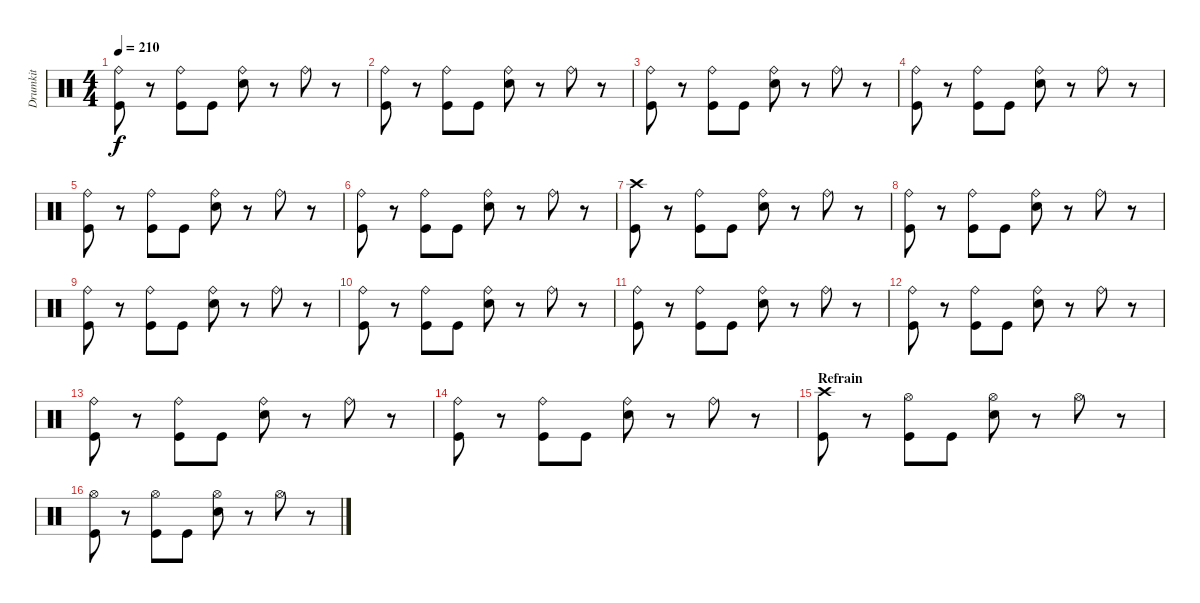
\track ("Drumkit" "Drumkit") {instrument percussion}
\staff {score}
\articulation defaults
\ts (4 4)
\tempo 210
\clef neutral
\ks c
("Ride (bell)" "Kick (hit)").8{dy f} r.8 ("Ride (bell)" "Kick (hit)").8 "Kick (hit)".8 ("Ride (bell)" "Snare (hit) 2").8 r.8 "Ride (bell)".8 r.8 |
("Ride (bell)" "Kick (hit)").8 r.8 ("Ride (bell)" "Kick (hit)").8 "Kick (hit)".8 ("Ride (bell)" "Snare (hit) 2").8 r.8 "Ride (bell)".8 r.8 |
("Ride (bell)" "Kick (hit)").8 r.8 ("Ride (bell)" "Kick (hit)").8 "Kick (hit)".8 ("Ride (bell)" "Snare (hit) 2").8 r.8 "Ride (bell)".8 r.8 |
("Ride (bell)" "Kick (hit)").8 r.8 ("Ride (bell)" "Kick (hit)").8 "Kick (hit)".8 ("Ride (bell)" "Snare (hit) 2").8 r.8 "Ride (bell)".8 r.8 |
("Ride (bell)" "Kick (hit)").8 r.8 ("Ride (bell)" "Kick (hit)").8 "Kick (hit)".8 ("Ride (bell)" "Snare (hit) 2").8 r.8 "Ride (bell)".8 r.8 |
("Ride (bell)" "Kick (hit)").8 r.8 ("Ride (bell)" "Kick (hit)").8 "Kick (hit)".8 ("Ride (bell)" "Snare (hit) 2").8 r.8 "Ride (bell)".8 r.8 |
("Crash high (hit)" "Kick (hit)").8 r.8 ("Ride (bell)" "Kick (hit)").8 "Kick (hit)".8 ("Ride (bell)" "Snare (hit) 2").8 r.8 "Ride (bell)".8 r.8 |
("Ride (bell)" "Kick (hit)").8 r.8 ("Ride (bell)" "Kick (hit)").8 "Kick (hit)".8 ("Ride (bell)" "Snare (hit) 2").8 r.8 "Ride (bell)".8 r.8 |
("Ride (bell)" "Kick (hit)").8 r.8 ("Ride (bell)" "Kick (hit)").8 "Kick (hit)".8 ("Ride (bell)" "Snare (hit) 2").8 r.8 "Ride (bell)".8 r.8 |
("Ride (bell)" "Kick (hit)").8 r.8 ("Ride (bell)" "Kick (hit)").8 "Kick (hit)".8 ("Ride (bell)" "Snare (hit) 2").8 r.8 "Ride (bell)".8 r.8 |
("Ride (bell)" "Kick (hit)").8 r.8 ("Ride (bell)" "Kick (hit)").8 "Kick (hit)".8 ("Ride (bell)" "Snare (hit) 2").8 r.8 "Ride (bell)".8 r.8 |
("Ride (bell)" "Kick (hit)").8 r.8 ("Ride (bell)" "Kick (hit)").8 "Kick (hit)".8 ("Ride (bell)" "Snare (hit) 2").8 r.8 "Ride (bell)".8 r.8 |
("Ride (bell)" "Kick (hit)").8 r.8 ("Ride (bell)" "Kick (hit)").8 "Kick (hit)".8 ("Ride (bell)" "Snare (hit) 2").8 r.8 "Ride (bell)".8 r.8 |
("Ride (bell)" "Kick (hit)").8 r.8 ("Ride (bell)" "Kick (hit)").8 "Kick (hit)".8 ("Ride (bell)" "Snare (hit) 2").8 r.8 "Ride (bell)".8 r.8 |
\section ("" "Refrain")
("Crash high (hit)" "Kick (hit)").8 r.8 ("Hi-Hat (open)" "Kick (hit)").8 "Kick (hit)".8 ("Hi-Hat (open)" "Snare (hit) 2").8 r.8 "Hi-Hat (open)".8 r.8 |
("Hi-Hat (open)" "Kick (hit)").8 r.8 ("Hi-Hat (open)" "Kick (hit)").8 "Kick (hit)".8 ("Hi-Hat (open)" "Snare (hit) 2").8 r.8 "Hi-Hat (open)".8 r.8
